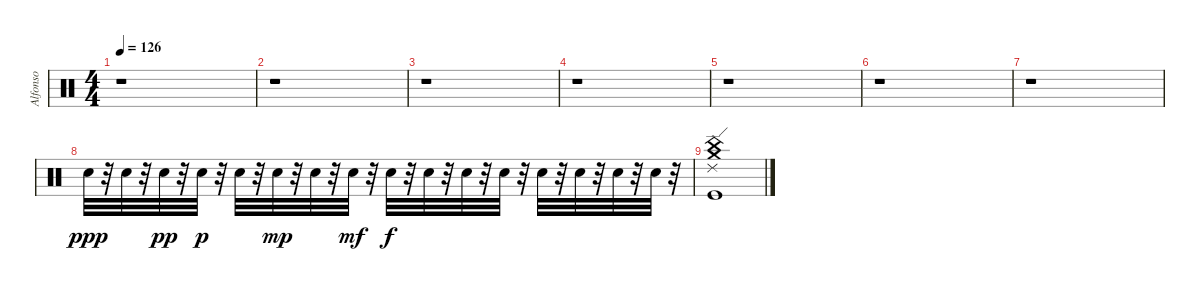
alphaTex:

\track ("Alfonso" "Alfonso") {instrument percussion}
\staff {score}
\articulation defaults
\ts (4 4)
\tempo 126
\clef neutral
\ks c
r.1{dy f} |
r.1 |
r.1 |
r.1 |
r.1 |
r.1 |
r.1 |
"Snare (hit) 2".32{dy ppp} r.32 "Snare (hit) 2".32 r.32 "Snare (hit) 2".32{dy pp} r.32 "Snare (hit) 2".32{dy p} r.32 "Snare (hit) 2".32 r.32 "Snare (hit) 2".32{dy mp} r.32 "Snare (hit) 2".32 r.32 "Snare (hit) 2".32{dy mf} r.32 "Snare (hit) 2".32{dy f} r.32 "Snare (hit) 2".32 r.32 "Snare (hit) 2".32 r.32 "Snare (hit) 2".32 r.32 "Snare (hit) 2".32 r.32 "Snare (hit) 2".32 r.32 "Snare (hit) 2".32 r.32 "Snare (hit) 2".32 r.32 |
("Ride (edge) 2" "Kick (hit)" "Crash medium (hit)" "China (hit)").1
